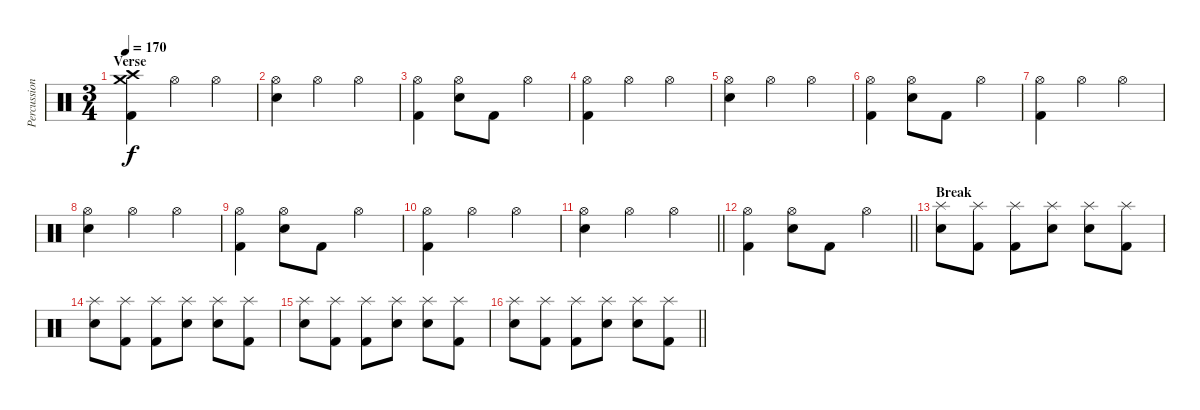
\track ("Percussion" "Percussion") {instrument percussion}
\staff {score}
\articulation defaults
\ts (3 4)
\section ("" "Verse")
\tempo 170
\clef neutral
\ks c
("Crash medium (hit)" "Crash high (hit)" "Kick (hit) 2").4{dy f} "Hi-Hat (open)".4 "Hi-Hat (open)".4 |
("Hi-Hat (open)" "Electric Snare (hit)").4 "Hi-Hat (open)".4 "Hi-Hat (open)".4 |
("Hi-Hat (open)" "Kick (hit) 2").4 ("Hi-Hat (open)" "Electric Snare (hit)").8 "Kick (hit) 2".8 "Hi-Hat (open)".4 |
("Hi-Hat (open)" "Kick (hit) 2").4 "Hi-Hat (open)".4 "Hi-Hat (open)".4 |
("Hi-Hat (open)" "Electric Snare (hit)").4 "Hi-Hat (open)".4 "Hi-Hat (open)".4 |
("Hi-Hat (open)" "Kick (hit) 2").4 ("Hi-Hat (open)" "Electric Snare (hit)").8 "Kick (hit) 2".8 "Hi-Hat (open)".4 |
("Hi-Hat (open)" "Kick (hit) 2").4 "Hi-Hat (open)".4 "Hi-Hat (open)".4 |
("Hi-Hat (open)" "Electric Snare (hit)").4 "Hi-Hat (open)".4 "Hi-Hat (open)".4 |
("Hi-Hat (open)" "Kick (hit) 2").4 ("Hi-Hat (open)" "Electric Snare (hit)").8 "Kick (hit) 2".8 "Hi-Hat (open)".4 |
("Hi-Hat (open)" "Kick (hit) 2").4 "Hi-Hat (open)".4 "Hi-Hat (open)".4 |
\barLineRight lightlight
("Hi-Hat (open)" "Electric Snare (hit)").4 "Hi-Hat (open)".4 "Hi-Hat (open)".4 |
\barLineRight lightlight
("Hi-Hat (open)" "Kick (hit) 2").4 ("Hi-Hat (open)" "Electric Snare (hit)").8 "Kick (hit) 2".8 "Hi-Hat (open)".4 |
\section ("" "Break")
("Splash (hit)" "Electric Snare (hit)").8 ("Splash (hit)" "Kick (hit) 2").8 ("Splash (hit)" "Kick (hit) 2").8 ("Splash (hit)" "Electric Snare (hit)").8 ("Splash (hit)" "Electric Snare (hit)").8 ("Splash (hit)" "Kick (hit) 2").8 |
("Splash (hit)" "Electric Snare (hit)").8 ("Splash (hit)" "Kick (hit) 2").8 ("Splash (hit)" "Kick (hit) 2").8 ("Splash (hit)" "Electric Snare (hit)").8 ("Splash (hit)" "Electric Snare (hit)").8 ("Splash (hit)" "Kick (hit) 2").8 |
("Splash (hit)" "Electric Snare (hit)").8 ("Splash (hit)" "Kick (hit) 2").8 ("Splash (hit)" "Kick (hit) 2").8 ("Splash (hit)" "Electric Snare (hit)").8 ("Splash (hit)" "Electric Snare (hit)").8 ("Splash (hit)" "Kick (hit) 2").8 |
\barLineRight lightlight
("Splash (hit)" "Electric Snare (hit)").8 ("Splash (hit)" "Kick (hit) 2").8 ("Splash (hit)" "Kick (hit) 2").8 ("Splash (hit)" "Electric Snare (hit)").8 ("Splash (hit)" "Electric Snare (hit)").8 ("Splash (hit)" "Kick (hit) 2").8
